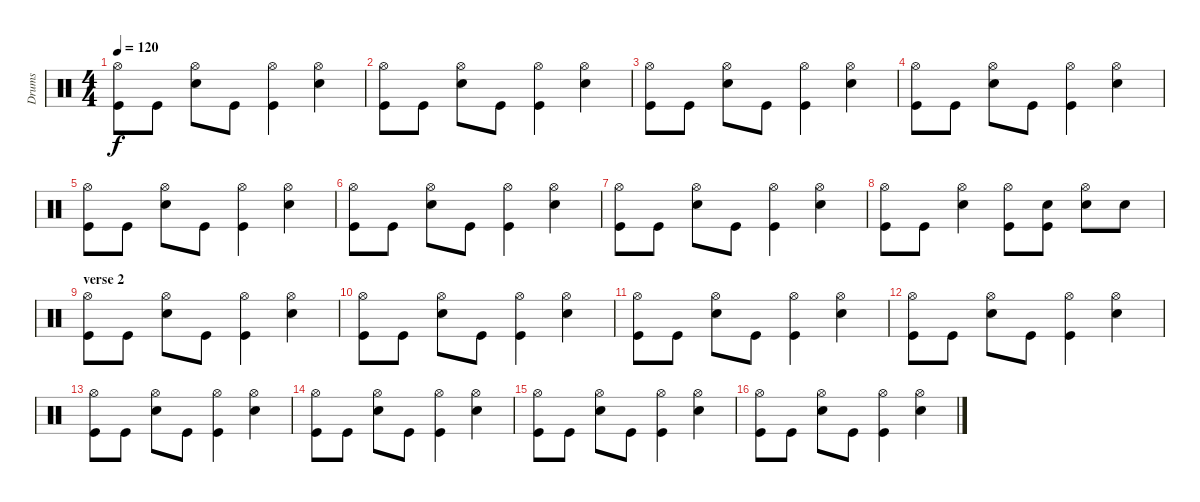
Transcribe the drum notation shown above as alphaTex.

\track ("Drums" "Drums") {instrument percussion}
\staff {score}
\articulation defaults
\ts (4 4)
\tempo 120
\clef neutral
\ks c
("Hi-Hat (open)" "Kick (hit)").8{dy f} "Kick (hit)".8 ("Hi-Hat (open)" "Electric Snare (hit)").8 "Kick (hit)".8 ("Hi-Hat (open)" "Kick (hit)").4 ("Hi-Hat (open)" "Electric Snare (hit)").4 |
("Hi-Hat (open)" "Kick (hit)").8 "Kick (hit)".8 ("Hi-Hat (open)" "Electric Snare (hit)").8 "Kick (hit)".8 ("Hi-Hat (open)" "Kick (hit)").4 ("Hi-Hat (open)" "Electric Snare (hit)").4 |
("Hi-Hat (open)" "Kick (hit)").8 "Kick (hit)".8 ("Hi-Hat (open)" "Electric Snare (hit)").8 "Kick (hit)".8 ("Hi-Hat (open)" "Kick (hit)").4 ("Hi-Hat (open)" "Electric Snare (hit)").4 |
("Hi-Hat (open)" "Kick (hit)").8 "Kick (hit)".8 ("Hi-Hat (open)" "Electric Snare (hit)").8 "Kick (hit)".8 ("Hi-Hat (open)" "Kick (hit)").4 ("Hi-Hat (open)" "Electric Snare (hit)").4 |
("Hi-Hat (open)" "Kick (hit)").8 "Kick (hit)".8 ("Hi-Hat (open)" "Electric Snare (hit)").8 "Kick (hit)".8 ("Hi-Hat (open)" "Kick (hit)").4 ("Hi-Hat (open)" "Electric Snare (hit)").4 |
("Hi-Hat (open)" "Kick (hit)").8 "Kick (hit)".8 ("Hi-Hat (open)" "Electric Snare (hit)").8 "Kick (hit)".8 ("Hi-Hat (open)" "Kick (hit)").4 ("Hi-Hat (open)" "Electric Snare (hit)").4 |
("Hi-Hat (open)" "Kick (hit)").8 "Kick (hit)".8 ("Hi-Hat (open)" "Electric Snare (hit)").8 "Kick (hit)".8 ("Hi-Hat (open)" "Kick (hit)").4 ("Hi-Hat (open)" "Electric Snare (hit)").4 |
("Hi-Hat (open)" "Kick (hit)").8 "Kick (hit)".8 ("Hi-Hat (open)" "Electric Snare (hit)").4 ("Hi-Hat (open)" "Kick (hit)").8 ("Electric Snare (hit)" "Kick (hit)").8 ("Hi-Hat (open)" "Electric Snare (hit)").8 "Electric Snare (hit)".8 |
\section ("" "verse 2")
("Hi-Hat (open)" "Kick (hit)").8 "Kick (hit)".8 ("Hi-Hat (open)" "Electric Snare (hit)").8 "Kick (hit)".8 ("Hi-Hat (open)" "Kick (hit)").4 ("Hi-Hat (open)" "Electric Snare (hit)").4 |
("Hi-Hat (open)" "Kick (hit)").8 "Kick (hit)".8 ("Hi-Hat (open)" "Electric Snare (hit)").8 "Kick (hit)".8 ("Hi-Hat (open)" "Kick (hit)").4 ("Hi-Hat (open)" "Electric Snare (hit)").4 |
("Hi-Hat (open)" "Kick (hit)").8 "Kick (hit)".8 ("Hi-Hat (open)" "Electric Snare (hit)").8 "Kick (hit)".8 ("Hi-Hat (open)" "Kick (hit)").4 ("Hi-Hat (open)" "Electric Snare (hit)").4 |
("Hi-Hat (open)" "Kick (hit)").8 "Kick (hit)".8 ("Hi-Hat (open)" "Electric Snare (hit)").8 "Kick (hit)".8 ("Hi-Hat (open)" "Kick (hit)").4 ("Hi-Hat (open)" "Electric Snare (hit)").4 |
("Hi-Hat (open)" "Kick (hit)").8 "Kick (hit)".8 ("Hi-Hat (open)" "Electric Snare (hit)").8 "Kick (hit)".8 ("Hi-Hat (open)" "Kick (hit)").4 ("Hi-Hat (open)" "Electric Snare (hit)").4 |
("Hi-Hat (open)" "Kick (hit)").8 "Kick (hit)".8 ("Hi-Hat (open)" "Electric Snare (hit)").8 "Kick (hit)".8 ("Hi-Hat (open)" "Kick (hit)").4 ("Hi-Hat (open)" "Electric Snare (hit)").4 |
("Hi-Hat (open)" "Kick (hit)").8 "Kick (hit)".8 ("Hi-Hat (open)" "Electric Snare (hit)").8 "Kick (hit)".8 ("Hi-Hat (open)" "Kick (hit)").4 ("Hi-Hat (open)" "Electric Snare (hit)").4 |
("Hi-Hat (open)" "Kick (hit)").8 "Kick (hit)".8 ("Hi-Hat (open)" "Electric Snare (hit)").8 "Kick (hit)".8 ("Hi-Hat (open)" "Kick (hit)").4 ("Hi-Hat (open)" "Electric Snare (hit)").4
